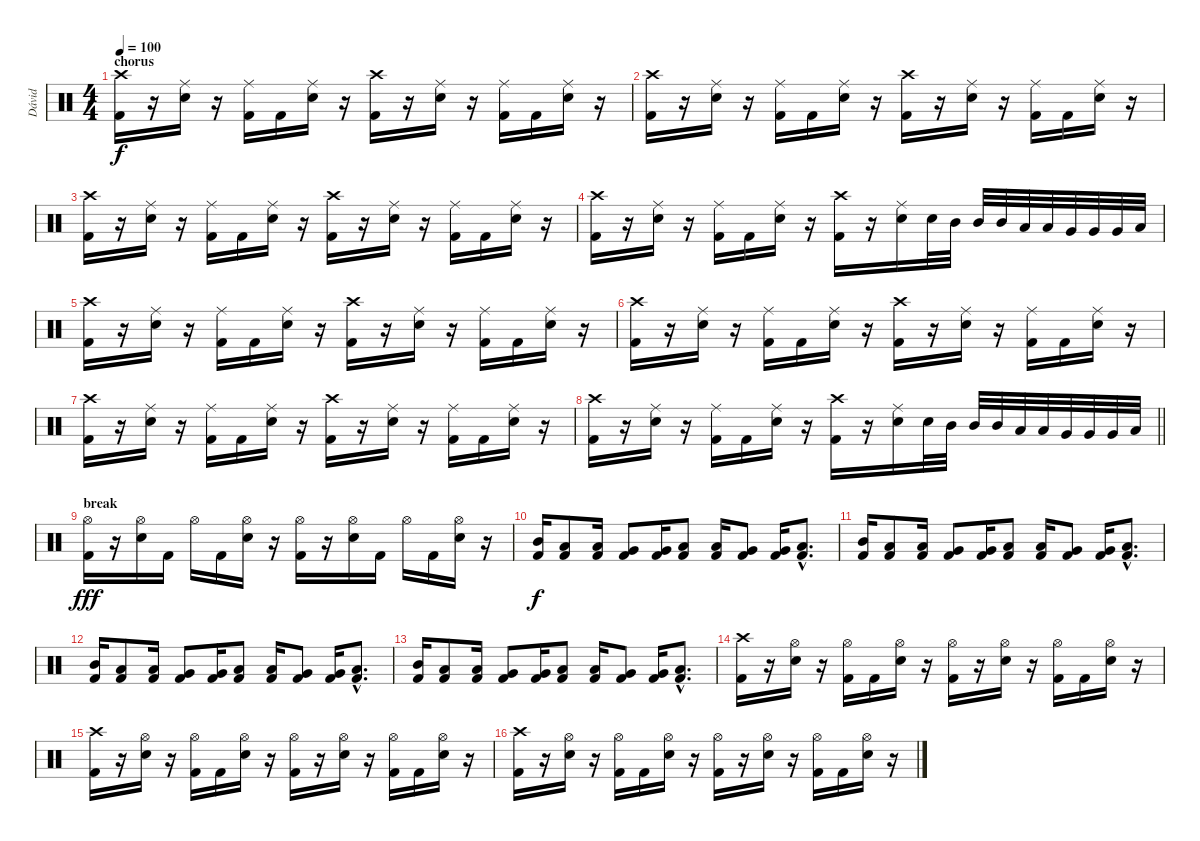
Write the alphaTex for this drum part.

\track ("Dávid" "Dávid") {instrument percussion}
\staff {score}
\articulation defaults
\ts (4 4)
\section ("" "chorus")
\tempo 100
\clef neutral
\ks c
("Crash high (hit)" "Kick (hit) 2").16{dy f} r.16 ("Ride (middle)" "Snare (hit) 2").16 r.16 ("Ride (middle)" "Kick (hit) 2").16 "Kick (hit) 2".16 ("Ride (middle)" "Snare (hit) 2").16 r.16 ("Crash high (hit)" "Kick (hit) 2").16 r.16 ("Ride (middle)" "Snare (hit) 2").16 r.16 ("Ride (middle)" "Kick (hit) 2").16 "Kick (hit) 2".16 ("Ride (middle)" "Snare (hit) 2").16 r.16 |
("Crash high (hit)" "Kick (hit) 2").16 r.16 ("Ride (middle)" "Snare (hit) 2").16 r.16 ("Ride (middle)" "Kick (hit) 2").16 "Kick (hit) 2".16 ("Ride (middle)" "Snare (hit) 2").16 r.16 ("Crash high (hit)" "Kick (hit) 2").16 r.16 ("Ride (middle)" "Snare (hit) 2").16 r.16 ("Ride (middle)" "Kick (hit) 2").16 "Kick (hit) 2".16 ("Ride (middle)" "Snare (hit) 2").16 r.16 |
("Crash high (hit)" "Kick (hit) 2").16 r.16 ("Ride (middle)" "Snare (hit) 2").16 r.16 ("Ride (middle)" "Kick (hit) 2").16 "Kick (hit) 2".16 ("Ride (middle)" "Snare (hit) 2").16 r.16 ("Crash high (hit)" "Kick (hit) 2").16 r.16 ("Ride (middle)" "Snare (hit) 2").16 r.16 ("Ride (middle)" "Kick (hit) 2").16 "Kick (hit) 2".16 ("Ride (middle)" "Snare (hit) 2").16 r.16 |
("Crash high (hit)" "Kick (hit) 2").16 r.16 ("Ride (middle)" "Snare (hit) 2").16 r.16 ("Ride (middle)" "Kick (hit) 2").16 "Kick (hit) 2".16 ("Ride (middle)" "Snare (hit) 2").16 r.16 ("Crash high (hit)" "Kick (hit) 2").16 r.16 ("Ride (middle)" "Snare (hit) 2").16 "Snare (hit) 2".32 "Mid Tom (hit)".32 "Mid Tom (hit)".32 "Mid Tom (hit)".32 "Low Tom (hit)".32 "Low Tom (hit)".32 "Very Low Tom (hit)".32 "Very Low Tom (hit)".32 "Very Low Tom (hit)".32 "Low Floor Tom (hit)".32 |
("Crash high (hit)" "Kick (hit) 2").16 r.16 ("Ride (middle)" "Snare (hit) 2").16 r.16 ("Ride (middle)" "Kick (hit) 2").16 "Kick (hit) 2".16 ("Ride (middle)" "Snare (hit) 2").16 r.16 ("Crash high (hit)" "Kick (hit) 2").16 r.16 ("Ride (middle)" "Snare (hit) 2").16 r.16 ("Ride (middle)" "Kick (hit) 2").16 "Kick (hit) 2".16 ("Ride (middle)" "Snare (hit) 2").16 r.16 |
("Crash high (hit)" "Kick (hit) 2").16 r.16 ("Ride (middle)" "Snare (hit) 2").16 r.16 ("Ride (middle)" "Kick (hit) 2").16 "Kick (hit) 2".16 ("Ride (middle)" "Snare (hit) 2").16 r.16 ("Crash high (hit)" "Kick (hit) 2").16 r.16 ("Ride (middle)" "Snare (hit) 2").16 r.16 ("Ride (middle)" "Kick (hit) 2").16 "Kick (hit) 2".16 ("Ride (middle)" "Snare (hit) 2").16 r.16 |
("Crash high (hit)" "Kick (hit) 2").16 r.16 ("Ride (middle)" "Snare (hit) 2").16 r.16 ("Ride (middle)" "Kick (hit) 2").16 "Kick (hit) 2".16 ("Ride (middle)" "Snare (hit) 2").16 r.16 ("Crash high (hit)" "Kick (hit) 2").16 r.16 ("Ride (middle)" "Snare (hit) 2").16 r.16 ("Ride (middle)" "Kick (hit) 2").16 "Kick (hit) 2".16 ("Ride (middle)" "Snare (hit) 2").16 r.16 |
\barLineRight lightlight
("Crash high (hit)" "Kick (hit) 2").16 r.16 ("Ride (middle)" "Snare (hit) 2").16 r.16 ("Ride (middle)" "Kick (hit) 2").16 "Kick (hit) 2".16 ("Ride (middle)" "Snare (hit) 2").16 r.16 ("Crash high (hit)" "Kick (hit) 2").16 r.16 ("Ride (middle)" "Snare (hit) 2").16 "Snare (hit) 2".32 "Mid Tom (hit)".32 "Mid Tom (hit)".32 "Mid Tom (hit)".32 "Low Tom (hit)".32 "Low Tom (hit)".32 "Very Low Tom (hit)".32 "Very Low Tom (hit)".32 "Very Low Tom (hit)".32 "Low Floor Tom (hit)".32 |
\section ("" "break")
("Hi-Hat (open)" "Kick (hit) 2").16{dy fff} r.16 ("Hi-Hat (open)" "Snare (hit) 2").16 "Kick (hit) 2".16 "Hi-Hat (open)".16 "Kick (hit) 2".16 ("Hi-Hat (open)" "Snare (hit) 2").16 r.16 ("Hi-Hat (open)" "Kick (hit) 2").16 r.16 ("Hi-Hat (open)" "Snare (hit) 2").16 "Kick (hit) 2".16 "Hi-Hat (open)".16 "Kick (hit) 2".16 ("Hi-Hat (open)" "Snare (hit) 2").16 r.16 |
("Mid Tom (hit)" "Kick (hit) 2").16{dy f} ("Low Tom (hit)" "Kick (hit) 2").8 ("Low Tom (hit)" "Kick (hit) 2").16 ("Very Low Tom (hit)" "Kick (hit) 2").8 ("Very Low Tom (hit)" "Kick (hit) 2").16 ("Low Floor Tom (hit)" "Kick (hit) 2").8 ("Low Tom (hit)" "Kick (hit) 2").16 ("Very Low Tom (hit)" "Kick (hit) 2").8 ("Very Low Tom (hit)" "Kick (hit) 2").16 ("Low Floor Tom (hit)"{hac} "Kick (hit) 2"{hac}).8{d} |
("Mid Tom (hit)" "Kick (hit) 2").16 ("Low Tom (hit)" "Kick (hit) 2").8 ("Low Tom (hit)" "Kick (hit) 2").16 ("Very Low Tom (hit)" "Kick (hit) 2").8 ("Very Low Tom (hit)" "Kick (hit) 2").16 ("Low Floor Tom (hit)" "Kick (hit) 2").8 ("Low Tom (hit)" "Kick (hit) 2").16 ("Very Low Tom (hit)" "Kick (hit) 2").8 ("Very Low Tom (hit)" "Kick (hit) 2").16 ("Low Floor Tom (hit)"{hac} "Kick (hit) 2"{hac}).8{d} |
("Mid Tom (hit)" "Kick (hit) 2").16 ("Low Tom (hit)" "Kick (hit) 2").8 ("Low Tom (hit)" "Kick (hit) 2").16 ("Very Low Tom (hit)" "Kick (hit) 2").8 ("Very Low Tom (hit)" "Kick (hit) 2").16 ("Low Floor Tom (hit)" "Kick (hit) 2").8 ("Low Tom (hit)" "Kick (hit) 2").16 ("Very Low Tom (hit)" "Kick (hit) 2").8 ("Very Low Tom (hit)" "Kick (hit) 2").16 ("Low Floor Tom (hit)"{hac} "Kick (hit) 2"{hac}).8{d} |
("Mid Tom (hit)" "Kick (hit) 2").16 ("Low Tom (hit)" "Kick (hit) 2").8 ("Low Tom (hit)" "Kick (hit) 2").16 ("Very Low Tom (hit)" "Kick (hit) 2").8 ("Very Low Tom (hit)" "Kick (hit) 2").16 ("Low Floor Tom (hit)" "Kick (hit) 2").8 ("Low Tom (hit)" "Kick (hit) 2").16 ("Very Low Tom (hit)" "Kick (hit) 2").8 ("Very Low Tom (hit)" "Kick (hit) 2").16 ("Low Floor Tom (hit)"{hac} "Kick (hit) 2"{hac}).8{d} |
("Crash high (hit)" "Kick (hit) 2").16 r.16 ("Hi-Hat (open)" "Snare (hit) 2").16 r.16 ("Hi-Hat (open)" "Kick (hit) 2").16 "Kick (hit) 2".16 ("Hi-Hat (open)" "Snare (hit) 2").16 r.16 ("Hi-Hat (open)" "Kick (hit) 2").16 r.16 ("Hi-Hat (open)" "Snare (hit) 2").16 r.16 ("Hi-Hat (open)" "Kick (hit) 2").16 "Kick (hit) 2".16 ("Hi-Hat (open)" "Snare (hit) 2").16 r.16 |
("Crash high (hit)" "Kick (hit) 2").16 r.16 ("Hi-Hat (open)" "Snare (hit) 2").16 r.16 ("Hi-Hat (open)" "Kick (hit) 2").16 "Kick (hit) 2".16 ("Hi-Hat (open)" "Snare (hit) 2").16 r.16 ("Hi-Hat (open)" "Kick (hit) 2").16 r.16 ("Hi-Hat (open)" "Snare (hit) 2").16 r.16 ("Hi-Hat (open)" "Kick (hit) 2").16 "Kick (hit) 2".16 ("Hi-Hat (open)" "Snare (hit) 2").16 r.16 |
("Crash high (hit)" "Kick (hit) 2").16 r.16 ("Hi-Hat (open)" "Snare (hit) 2").16 r.16 ("Hi-Hat (open)" "Kick (hit) 2").16 "Kick (hit) 2".16 ("Hi-Hat (open)" "Snare (hit) 2").16 r.16 ("Hi-Hat (open)" "Kick (hit) 2").16 r.16 ("Hi-Hat (open)" "Snare (hit) 2").16 r.16 ("Hi-Hat (open)" "Kick (hit) 2").16 "Kick (hit) 2".16 ("Hi-Hat (open)" "Snare (hit) 2").16 r.16
